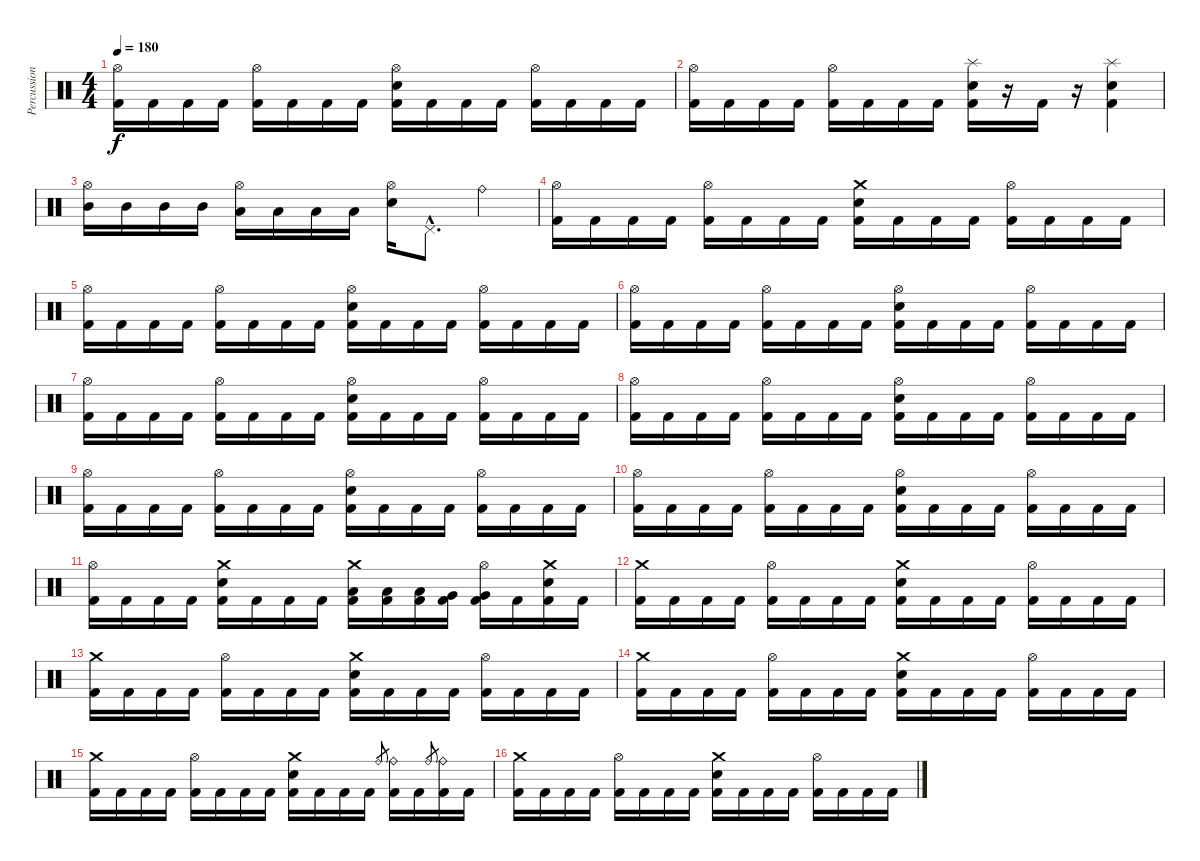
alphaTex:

\track ("Percussion" "Percussion") {instrument percussion}
\staff {score}
\articulation defaults
\ts (4 4)
\tempo 180
\clef neutral
\ks c
("Hi-Hat (open)" "Kick (hit) 2").16{dy f} "Kick (hit) 2".16 "Kick (hit) 2".16 "Kick (hit) 2".16 ("Hi-Hat (open)" "Kick (hit) 2").16 "Kick (hit) 2".16 "Kick (hit) 2".16 "Kick (hit) 2".16 ("Hi-Hat (open)" "Electric Snare (hit)" "Kick (hit) 2").16 "Kick (hit) 2".16 "Kick (hit) 2".16 "Kick (hit) 2".16 ("Hi-Hat (open)" "Kick (hit) 2").16 "Kick (hit) 2".16 "Kick (hit) 2".16 "Kick (hit) 2".16 |
("Hi-Hat (open)" "Kick (hit) 2").16 "Kick (hit) 2".16 "Kick (hit) 2".16 "Kick (hit) 2".16 ("Hi-Hat (open)" "Kick (hit) 2").16 "Kick (hit) 2".16 "Kick (hit) 2".16 "Kick (hit) 2".16 ("Splash (hit)" "Electric Snare (hit)" "Kick (hit) 2").16 r.16 "Kick (hit) 2".16 r.16 ("Splash (hit)" "Electric Snare (hit)" "Kick (hit) 2").4 |
("Hi-Hat (open)" "Mid Tom (hit)").16 "Mid Tom (hit)".16 "Mid Tom (hit)".16 "Mid Tom (hit)".16 ("Hi-Hat (open)" "Low Tom (hit)").16 "Low Tom (hit)".16 "Low Tom (hit)".16 "Low Tom (hit)".16 ("Hi-Hat (open)" "Electric Snare (hit)").16 "Pedal Hi-Hat (hit)"{hac}.8{d} "Ride (bell)".4 |
("Hi-Hat (open)" "Kick (hit) 2").16 "Kick (hit) 2".16 "Kick (hit) 2".16 "Kick (hit) 2".16 ("Hi-Hat (open)" "Kick (hit) 2").16 "Kick (hit) 2".16 "Kick (hit) 2".16 "Kick (hit) 2".16 ("Crash medium (hit)" "Electric Snare (hit)" "Kick (hit) 2").16 "Kick (hit) 2".16 "Kick (hit) 2".16 "Kick (hit) 2".16 ("Hi-Hat (open)" "Kick (hit) 2").16 "Kick (hit) 2".16 "Kick (hit) 2".16 "Kick (hit) 2".16 |
("Hi-Hat (open)" "Kick (hit) 2").16 "Kick (hit) 2".16 "Kick (hit) 2".16 "Kick (hit) 2".16 ("Hi-Hat (open)" "Kick (hit) 2").16 "Kick (hit) 2".16 "Kick (hit) 2".16 "Kick (hit) 2".16 ("Hi-Hat (open)" "Electric Snare (hit)" "Kick (hit) 2").16 "Kick (hit) 2".16 "Kick (hit) 2".16 "Kick (hit) 2".16 ("Hi-Hat (open)" "Kick (hit) 2").16 "Kick (hit) 2".16 "Kick (hit) 2".16 "Kick (hit) 2".16 |
("Hi-Hat (open)" "Kick (hit) 2").16 "Kick (hit) 2".16 "Kick (hit) 2".16 "Kick (hit) 2".16 ("Hi-Hat (open)" "Kick (hit) 2").16 "Kick (hit) 2".16 "Kick (hit) 2".16 "Kick (hit) 2".16 ("Hi-Hat (open)" "Electric Snare (hit)" "Kick (hit) 2").16 "Kick (hit) 2".16 "Kick (hit) 2".16 "Kick (hit) 2".16 ("Hi-Hat (open)" "Kick (hit) 2").16 "Kick (hit) 2".16 "Kick (hit) 2".16 "Kick (hit) 2".16 |
("Hi-Hat (open)" "Kick (hit) 2").16 "Kick (hit) 2".16 "Kick (hit) 2".16 "Kick (hit) 2".16 ("Hi-Hat (open)" "Kick (hit) 2").16 "Kick (hit) 2".16 "Kick (hit) 2".16 "Kick (hit) 2".16 ("Hi-Hat (open)" "Electric Snare (hit)" "Kick (hit) 2").16 "Kick (hit) 2".16 "Kick (hit) 2".16 "Kick (hit) 2".16 ("Hi-Hat (open)" "Kick (hit) 2").16 "Kick (hit) 2".16 "Kick (hit) 2".16 "Kick (hit) 2".16 |
("Hi-Hat (open)" "Kick (hit) 2").16 "Kick (hit) 2".16 "Kick (hit) 2".16 "Kick (hit) 2".16 ("Hi-Hat (open)" "Kick (hit) 2").16 "Kick (hit) 2".16 "Kick (hit) 2".16 "Kick (hit) 2".16 ("Hi-Hat (open)" "Electric Snare (hit)" "Kick (hit) 2").16 "Kick (hit) 2".16 "Kick (hit) 2".16 "Kick (hit) 2".16 ("Hi-Hat (open)" "Kick (hit) 2").16 "Kick (hit) 2".16 "Kick (hit) 2".16 "Kick (hit) 2".16 |
("Hi-Hat (open)" "Kick (hit) 2").16 "Kick (hit) 2".16 "Kick (hit) 2".16 "Kick (hit) 2".16 ("Hi-Hat (open)" "Kick (hit) 2").16 "Kick (hit) 2".16 "Kick (hit) 2".16 "Kick (hit) 2".16 ("Hi-Hat (open)" "Electric Snare (hit)" "Kick (hit) 2").16 "Kick (hit) 2".16 "Kick (hit) 2".16 "Kick (hit) 2".16 ("Hi-Hat (open)" "Kick (hit) 2").16 "Kick (hit) 2".16 "Kick (hit) 2".16 "Kick (hit) 2".16 |
("Hi-Hat (open)" "Kick (hit) 2").16 "Kick (hit) 2".16 "Kick (hit) 2".16 "Kick (hit) 2".16 ("Hi-Hat (open)" "Kick (hit) 2").16 "Kick (hit) 2".16 "Kick (hit) 2".16 "Kick (hit) 2".16 ("Hi-Hat (open)" "Electric Snare (hit)" "Kick (hit) 2").16 "Kick (hit) 2".16 "Kick (hit) 2".16 "Kick (hit) 2".16 ("Hi-Hat (open)" "Kick (hit) 2").16 "Kick (hit) 2".16 "Kick (hit) 2".16 "Kick (hit) 2".16 |
("Hi-Hat (open)" "Kick (hit) 2").16 "Kick (hit) 2".16 "Kick (hit) 2".16 "Kick (hit) 2".16 ("Crash medium (hit)" "Electric Snare (hit)" "Kick (hit) 2").16 "Kick (hit) 2".16 "Kick (hit) 2".16 "Kick (hit) 2".16 ("Crash medium (hit)" "Low Tom (hit)" "Kick (hit) 2").16 ("Low Tom (hit)" "Kick (hit) 2").16 ("Low Tom (hit)" "Kick (hit) 2").16 ("Very Low Tom (hit)" "Kick (hit) 2").16 ("Hi-Hat (open)" "Very Low Tom (hit)" "Kick (hit) 2").16 "Kick (hit) 2".16 ("Crash medium (hit)" "Electric Snare (hit)" "Kick (hit) 2").16 "Kick (hit) 2".16 |
("Crash medium (hit)" "Kick (hit) 2").16 "Kick (hit) 2".16 "Kick (hit) 2".16 "Kick (hit) 2".16 ("Hi-Hat (open)" "Kick (hit) 2").16 "Kick (hit) 2".16 "Kick (hit) 2".16 "Kick (hit) 2".16 ("Crash medium (hit)" "Electric Snare (hit)" "Kick (hit) 2").16 "Kick (hit) 2".16 "Kick (hit) 2".16 "Kick (hit) 2".16 ("Hi-Hat (open)" "Kick (hit) 2").16 "Kick (hit) 2".16 "Kick (hit) 2".16 "Kick (hit) 2".16 |
("Crash medium (hit)" "Kick (hit) 2").16 "Kick (hit) 2".16 "Kick (hit) 2".16 "Kick (hit) 2".16 ("Hi-Hat (open)" "Kick (hit) 2").16 "Kick (hit) 2".16 "Kick (hit) 2".16 "Kick (hit) 2".16 ("Crash medium (hit)" "Electric Snare (hit)" "Kick (hit) 2").16 "Kick (hit) 2".16 "Kick (hit) 2".16 "Kick (hit) 2".16 ("Hi-Hat (open)" "Kick (hit) 2").16 "Kick (hit) 2".16 "Kick (hit) 2".16 "Kick (hit) 2".16 |
("Crash medium (hit)" "Kick (hit) 2").16 "Kick (hit) 2".16 "Kick (hit) 2".16 "Kick (hit) 2".16 ("Hi-Hat (open)" "Kick (hit) 2").16 "Kick (hit) 2".16 "Kick (hit) 2".16 "Kick (hit) 2".16 ("Crash medium (hit)" "Electric Snare (hit)" "Kick (hit) 2").16 "Kick (hit) 2".16 "Kick (hit) 2".16 "Kick (hit) 2".16 ("Hi-Hat (open)" "Kick (hit) 2").16 "Kick (hit) 2".16 "Kick (hit) 2".16 "Kick (hit) 2".16 |
("Crash medium (hit)" "Kick (hit) 2").16 "Kick (hit) 2".16 "Kick (hit) 2".16 "Kick (hit) 2".16 ("Hi-Hat (open)" "Kick (hit) 2").16 "Kick (hit) 2".16 "Kick (hit) 2".16 "Kick (hit) 2".16 ("Crash medium (hit)" "Electric Snare (hit)" "Kick (hit) 2").16 "Kick (hit) 2".16 "Kick (hit) 2".16 "Kick (hit) 2".16 "Ride (bell)".8{gr} ("Ride (bell)" "Kick (hit) 2").16 "Kick (hit) 2".16 "Ride (bell)".8{gr} ("Ride (bell)" "Kick (hit) 2").16 "Kick (hit) 2".16 |
("Crash medium (hit)" "Kick (hit) 2").16 "Kick (hit) 2".16 "Kick (hit) 2".16 "Kick (hit) 2".16 ("Hi-Hat (open)" "Kick (hit) 2").16 "Kick (hit) 2".16 "Kick (hit) 2".16 "Kick (hit) 2".16 ("Crash medium (hit)" "Electric Snare (hit)" "Kick (hit) 2").16 "Kick (hit) 2".16 "Kick (hit) 2".16 "Kick (hit) 2".16 ("Hi-Hat (open)" "Kick (hit) 2").16 "Kick (hit) 2".16 "Kick (hit) 2".16 "Kick (hit) 2".16
